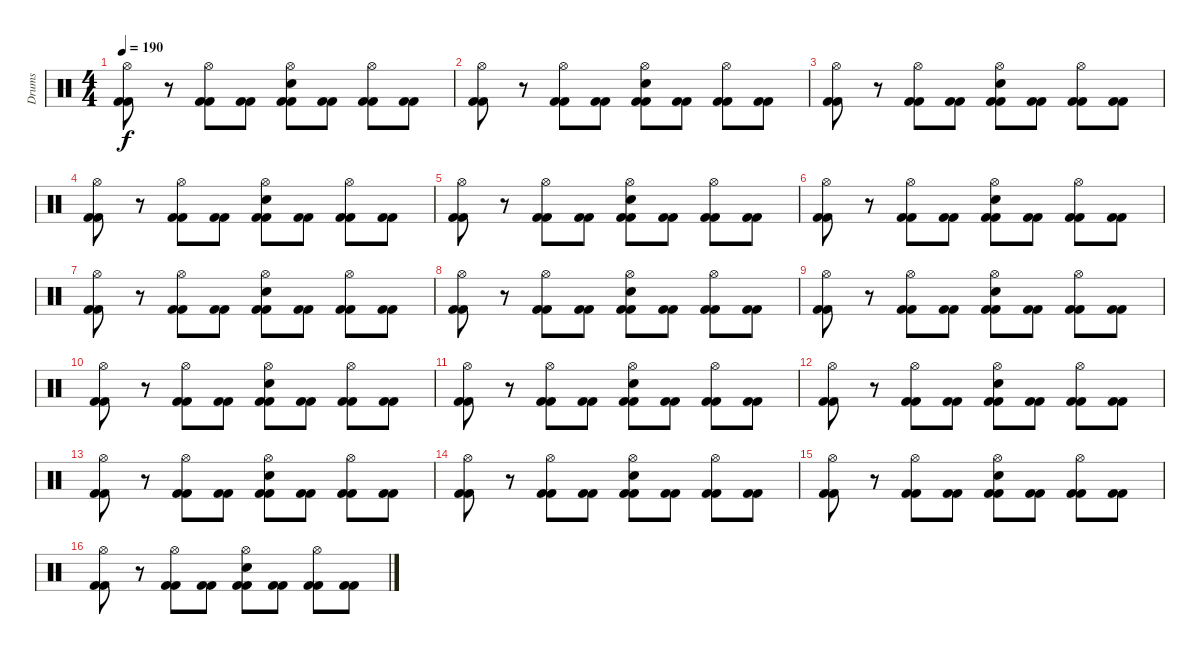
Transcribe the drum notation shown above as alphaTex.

\track ("Drums" "Drums") {instrument percussion}
\staff {score}
\articulation defaults
\ts (4 4)
\tempo 190
\clef neutral
\ks c
("Hi-Hat (open)" "Kick (hit) 2" "Kick (hit) 2").8{dy f} r.8 ("Hi-Hat (open)" "Kick (hit) 2" "Kick (hit) 2").8 ("Kick (hit) 2" "Kick (hit) 2").8 ("Hi-Hat (open)" "Snare (hit) 2" "Kick (hit) 2" "Kick (hit) 2").8 ("Kick (hit) 2" "Kick (hit) 2").8 ("Hi-Hat (open)" "Kick (hit) 2" "Kick (hit) 2").8 ("Kick (hit) 2" "Kick (hit) 2").8 |
("Hi-Hat (open)" "Kick (hit) 2" "Kick (hit) 2").8 r.8 ("Hi-Hat (open)" "Kick (hit) 2" "Kick (hit) 2").8 ("Kick (hit) 2" "Kick (hit) 2").8 ("Hi-Hat (open)" "Snare (hit) 2" "Kick (hit) 2" "Kick (hit) 2").8 ("Kick (hit) 2" "Kick (hit) 2").8 ("Hi-Hat (open)" "Kick (hit) 2" "Kick (hit) 2").8 ("Kick (hit) 2" "Kick (hit) 2").8 |
("Hi-Hat (open)" "Kick (hit) 2" "Kick (hit) 2").8 r.8 ("Hi-Hat (open)" "Kick (hit) 2" "Kick (hit) 2").8 ("Kick (hit) 2" "Kick (hit) 2").8 ("Hi-Hat (open)" "Snare (hit) 2" "Kick (hit) 2" "Kick (hit) 2").8 ("Kick (hit) 2" "Kick (hit) 2").8 ("Hi-Hat (open)" "Kick (hit) 2" "Kick (hit) 2").8 ("Kick (hit) 2" "Kick (hit) 2").8 |
("Hi-Hat (open)" "Kick (hit) 2" "Kick (hit) 2").8 r.8 ("Hi-Hat (open)" "Kick (hit) 2" "Kick (hit) 2").8 ("Kick (hit) 2" "Kick (hit) 2").8 ("Hi-Hat (open)" "Snare (hit) 2" "Kick (hit) 2" "Kick (hit) 2").8 ("Kick (hit) 2" "Kick (hit) 2").8 ("Hi-Hat (open)" "Kick (hit) 2" "Kick (hit) 2").8 ("Kick (hit) 2" "Kick (hit) 2").8 |
("Hi-Hat (open)" "Kick (hit) 2" "Kick (hit) 2").8 r.8 ("Hi-Hat (open)" "Kick (hit) 2" "Kick (hit) 2").8 ("Kick (hit) 2" "Kick (hit) 2").8 ("Hi-Hat (open)" "Snare (hit) 2" "Kick (hit) 2" "Kick (hit) 2").8 ("Kick (hit) 2" "Kick (hit) 2").8 ("Hi-Hat (open)" "Kick (hit) 2" "Kick (hit) 2").8 ("Kick (hit) 2" "Kick (hit) 2").8 |
("Hi-Hat (open)" "Kick (hit) 2" "Kick (hit) 2").8 r.8 ("Hi-Hat (open)" "Kick (hit) 2" "Kick (hit) 2").8 ("Kick (hit) 2" "Kick (hit) 2").8 ("Hi-Hat (open)" "Snare (hit) 2" "Kick (hit) 2" "Kick (hit) 2").8 ("Kick (hit) 2" "Kick (hit) 2").8 ("Hi-Hat (open)" "Kick (hit) 2" "Kick (hit) 2").8 ("Kick (hit) 2" "Kick (hit) 2").8 |
("Hi-Hat (open)" "Kick (hit) 2" "Kick (hit) 2").8 r.8 ("Hi-Hat (open)" "Kick (hit) 2" "Kick (hit) 2").8 ("Kick (hit) 2" "Kick (hit) 2").8 ("Hi-Hat (open)" "Snare (hit) 2" "Kick (hit) 2" "Kick (hit) 2").8 ("Kick (hit) 2" "Kick (hit) 2").8 ("Hi-Hat (open)" "Kick (hit) 2" "Kick (hit) 2").8 ("Kick (hit) 2" "Kick (hit) 2").8 |
("Hi-Hat (open)" "Kick (hit) 2" "Kick (hit) 2").8 r.8 ("Hi-Hat (open)" "Kick (hit) 2" "Kick (hit) 2").8 ("Kick (hit) 2" "Kick (hit) 2").8 ("Hi-Hat (open)" "Snare (hit) 2" "Kick (hit) 2" "Kick (hit) 2").8 ("Kick (hit) 2" "Kick (hit) 2").8 ("Hi-Hat (open)" "Kick (hit) 2" "Kick (hit) 2").8 ("Kick (hit) 2" "Kick (hit) 2").8 |
("Hi-Hat (open)" "Kick (hit) 2" "Kick (hit) 2").8 r.8 ("Hi-Hat (open)" "Kick (hit) 2" "Kick (hit) 2").8 ("Kick (hit) 2" "Kick (hit) 2").8 ("Hi-Hat (open)" "Snare (hit) 2" "Kick (hit) 2" "Kick (hit) 2").8 ("Kick (hit) 2" "Kick (hit) 2").8 ("Hi-Hat (open)" "Kick (hit) 2" "Kick (hit) 2").8 ("Kick (hit) 2" "Kick (hit) 2").8 |
("Hi-Hat (open)" "Kick (hit) 2" "Kick (hit) 2").8 r.8 ("Hi-Hat (open)" "Kick (hit) 2" "Kick (hit) 2").8 ("Kick (hit) 2" "Kick (hit) 2").8 ("Hi-Hat (open)" "Snare (hit) 2" "Kick (hit) 2" "Kick (hit) 2").8 ("Kick (hit) 2" "Kick (hit) 2").8 ("Hi-Hat (open)" "Kick (hit) 2" "Kick (hit) 2").8 ("Kick (hit) 2" "Kick (hit) 2").8 |
("Hi-Hat (open)" "Kick (hit) 2" "Kick (hit) 2").8 r.8 ("Hi-Hat (open)" "Kick (hit) 2" "Kick (hit) 2").8 ("Kick (hit) 2" "Kick (hit) 2").8 ("Hi-Hat (open)" "Snare (hit) 2" "Kick (hit) 2" "Kick (hit) 2").8 ("Kick (hit) 2" "Kick (hit) 2").8 ("Hi-Hat (open)" "Kick (hit) 2" "Kick (hit) 2").8 ("Kick (hit) 2" "Kick (hit) 2").8 |
("Hi-Hat (open)" "Kick (hit) 2" "Kick (hit) 2").8 r.8 ("Hi-Hat (open)" "Kick (hit) 2" "Kick (hit) 2").8 ("Kick (hit) 2" "Kick (hit) 2").8 ("Hi-Hat (open)" "Snare (hit) 2" "Kick (hit) 2" "Kick (hit) 2").8 ("Kick (hit) 2" "Kick (hit) 2").8 ("Hi-Hat (open)" "Kick (hit) 2" "Kick (hit) 2").8 ("Kick (hit) 2" "Kick (hit) 2").8 |
("Hi-Hat (open)" "Kick (hit) 2" "Kick (hit) 2").8 r.8 ("Hi-Hat (open)" "Kick (hit) 2" "Kick (hit) 2").8 ("Kick (hit) 2" "Kick (hit) 2").8 ("Hi-Hat (open)" "Snare (hit) 2" "Kick (hit) 2" "Kick (hit) 2").8 ("Kick (hit) 2" "Kick (hit) 2").8 ("Hi-Hat (open)" "Kick (hit) 2" "Kick (hit) 2").8 ("Kick (hit) 2" "Kick (hit) 2").8 |
("Hi-Hat (open)" "Kick (hit) 2" "Kick (hit) 2").8 r.8 ("Hi-Hat (open)" "Kick (hit) 2" "Kick (hit) 2").8 ("Kick (hit) 2" "Kick (hit) 2").8 ("Hi-Hat (open)" "Snare (hit) 2" "Kick (hit) 2" "Kick (hit) 2").8 ("Kick (hit) 2" "Kick (hit) 2").8 ("Hi-Hat (open)" "Kick (hit) 2" "Kick (hit) 2").8 ("Kick (hit) 2" "Kick (hit) 2").8 |
("Hi-Hat (open)" "Kick (hit) 2" "Kick (hit) 2").8 r.8 ("Hi-Hat (open)" "Kick (hit) 2" "Kick (hit) 2").8 ("Kick (hit) 2" "Kick (hit) 2").8 ("Hi-Hat (open)" "Snare (hit) 2" "Kick (hit) 2" "Kick (hit) 2").8 ("Kick (hit) 2" "Kick (hit) 2").8 ("Hi-Hat (open)" "Kick (hit) 2" "Kick (hit) 2").8 ("Kick (hit) 2" "Kick (hit) 2").8 |
("Hi-Hat (open)" "Kick (hit) 2" "Kick (hit) 2").8 r.8 ("Hi-Hat (open)" "Kick (hit) 2" "Kick (hit) 2").8 ("Kick (hit) 2" "Kick (hit) 2").8 ("Hi-Hat (open)" "Snare (hit) 2" "Kick (hit) 2" "Kick (hit) 2").8 ("Kick (hit) 2" "Kick (hit) 2").8 ("Hi-Hat (open)" "Kick (hit) 2" "Kick (hit) 2").8 ("Kick (hit) 2" "Kick (hit) 2").8
